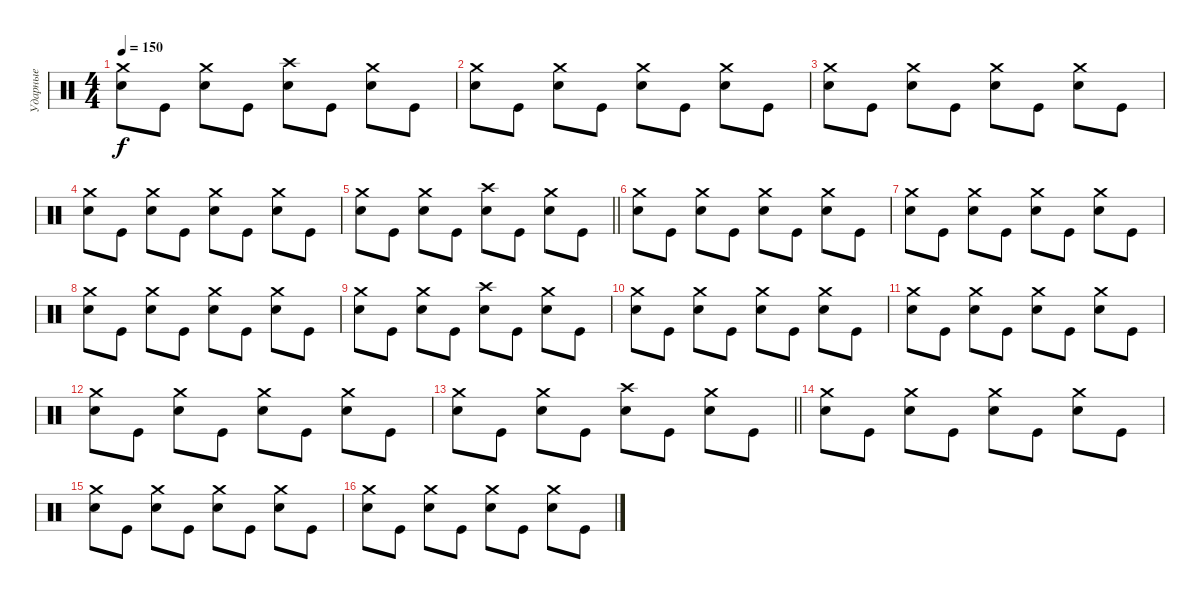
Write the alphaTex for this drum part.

\track ("Ударные" "Ударные") {instrument percussion}
\staff {score}
\articulation defaults
\ts (4 4)
\tempo 150
\clef neutral
\ks c
("Crash medium (hit)" "Electric Snare (hit)").8{dy f} "Kick (hit)".8 ("Crash medium (hit)" "Electric Snare (hit)").8 "Kick (hit)".8 ("Crash high (hit)" "Electric Snare (hit)").8 "Kick (hit)".8 ("Crash medium (hit)" "Electric Snare (hit)").8 "Kick (hit)".8 |
("Crash medium (hit)" "Electric Snare (hit)").8 "Kick (hit)".8 ("Crash medium (hit)" "Electric Snare (hit)").8 "Kick (hit)".8 ("Crash medium (hit)" "Electric Snare (hit)").8 "Kick (hit)".8 ("Crash medium (hit)" "Electric Snare (hit)").8 "Kick (hit)".8 |
("Crash medium (hit)" "Electric Snare (hit)").8 "Kick (hit)".8 ("Crash medium (hit)" "Electric Snare (hit)").8 "Kick (hit)".8 ("Crash medium (hit)" "Electric Snare (hit)").8 "Kick (hit)".8 ("Crash medium (hit)" "Electric Snare (hit)").8 "Kick (hit)".8 |
("Crash medium (hit)" "Electric Snare (hit)").8 "Kick (hit)".8 ("Crash medium (hit)" "Electric Snare (hit)").8 "Kick (hit)".8 ("Crash medium (hit)" "Electric Snare (hit)").8 "Kick (hit)".8 ("Crash medium (hit)" "Electric Snare (hit)").8 "Kick (hit)".8 |
\barLineRight lightlight
("Crash medium (hit)" "Electric Snare (hit)").8 "Kick (hit)".8 ("Crash medium (hit)" "Electric Snare (hit)").8 "Kick (hit)".8 ("Crash high (hit)" "Electric Snare (hit)").8 "Kick (hit)".8 ("Crash medium (hit)" "Electric Snare (hit)").8 "Kick (hit)".8 |
\section ("" " ")
("Crash medium (hit)" "Electric Snare (hit)").8 "Kick (hit)".8 ("Crash medium (hit)" "Electric Snare (hit)").8 "Kick (hit)".8 ("Crash medium (hit)" "Electric Snare (hit)").8 "Kick (hit)".8 ("Crash medium (hit)" "Electric Snare (hit)").8 "Kick (hit)".8 |
("Crash medium (hit)" "Electric Snare (hit)").8 "Kick (hit)".8 ("Crash medium (hit)" "Electric Snare (hit)").8 "Kick (hit)".8 ("Crash medium (hit)" "Electric Snare (hit)").8 "Kick (hit)".8 ("Crash medium (hit)" "Electric Snare (hit)").8 "Kick (hit)".8 |
("Crash medium (hit)" "Electric Snare (hit)").8 "Kick (hit)".8 ("Crash medium (hit)" "Electric Snare (hit)").8 "Kick (hit)".8 ("Crash medium (hit)" "Electric Snare (hit)").8 "Kick (hit)".8 ("Crash medium (hit)" "Electric Snare (hit)").8 "Kick (hit)".8 |
("Crash medium (hit)" "Electric Snare (hit)").8 "Kick (hit)".8 ("Crash medium (hit)" "Electric Snare (hit)").8 "Kick (hit)".8 ("Crash high (hit)" "Electric Snare (hit)").8 "Kick (hit)".8 ("Crash medium (hit)" "Electric Snare (hit)").8 "Kick (hit)".8 |
("Crash medium (hit)" "Electric Snare (hit)").8 "Kick (hit)".8 ("Crash medium (hit)" "Electric Snare (hit)").8 "Kick (hit)".8 ("Crash medium (hit)" "Electric Snare (hit)").8 "Kick (hit)".8 ("Crash medium (hit)" "Electric Snare (hit)").8 "Kick (hit)".8 |
("Crash medium (hit)" "Electric Snare (hit)").8 "Kick (hit)".8 ("Crash medium (hit)" "Electric Snare (hit)").8 "Kick (hit)".8 ("Crash medium (hit)" "Electric Snare (hit)").8 "Kick (hit)".8 ("Crash medium (hit)" "Electric Snare (hit)").8 "Kick (hit)".8 |
("Crash medium (hit)" "Electric Snare (hit)").8 "Kick (hit)".8 ("Crash medium (hit)" "Electric Snare (hit)").8 "Kick (hit)".8 ("Crash medium (hit)" "Electric Snare (hit)").8 "Kick (hit)".8 ("Crash medium (hit)" "Electric Snare (hit)").8 "Kick (hit)".8 |
\barLineRight lightlight
("Crash medium (hit)" "Electric Snare (hit)").8 "Kick (hit)".8 ("Crash medium (hit)" "Electric Snare (hit)").8 "Kick (hit)".8 ("Crash high (hit)" "Electric Snare (hit)").8 "Kick (hit)".8 ("Crash medium (hit)" "Electric Snare (hit)").8 "Kick (hit)".8 |
\section ("" " ")
("Crash medium (hit)" "Electric Snare (hit)").8{volume 6} "Kick (hit)".8 ("Crash medium (hit)" "Electric Snare (hit)").8 "Kick (hit)".8 ("Crash medium (hit)" "Electric Snare (hit)").8 "Kick (hit)".8 ("Crash medium (hit)" "Electric Snare (hit)").8 "Kick (hit)".8 |
("Crash medium (hit)" "Electric Snare (hit)").8 "Kick (hit)".8 ("Crash medium (hit)" "Electric Snare (hit)").8 "Kick (hit)".8 ("Crash medium (hit)" "Electric Snare (hit)").8 "Kick (hit)".8 ("Crash medium (hit)" "Electric Snare (hit)").8 "Kick (hit)".8 |
("Crash medium (hit)" "Electric Snare (hit)").8 "Kick (hit)".8 ("Crash medium (hit)" "Electric Snare (hit)").8 "Kick (hit)".8 ("Crash medium (hit)" "Electric Snare (hit)").8 "Kick (hit)".8 ("Crash medium (hit)" "Electric Snare (hit)").8 "Kick (hit)".8
